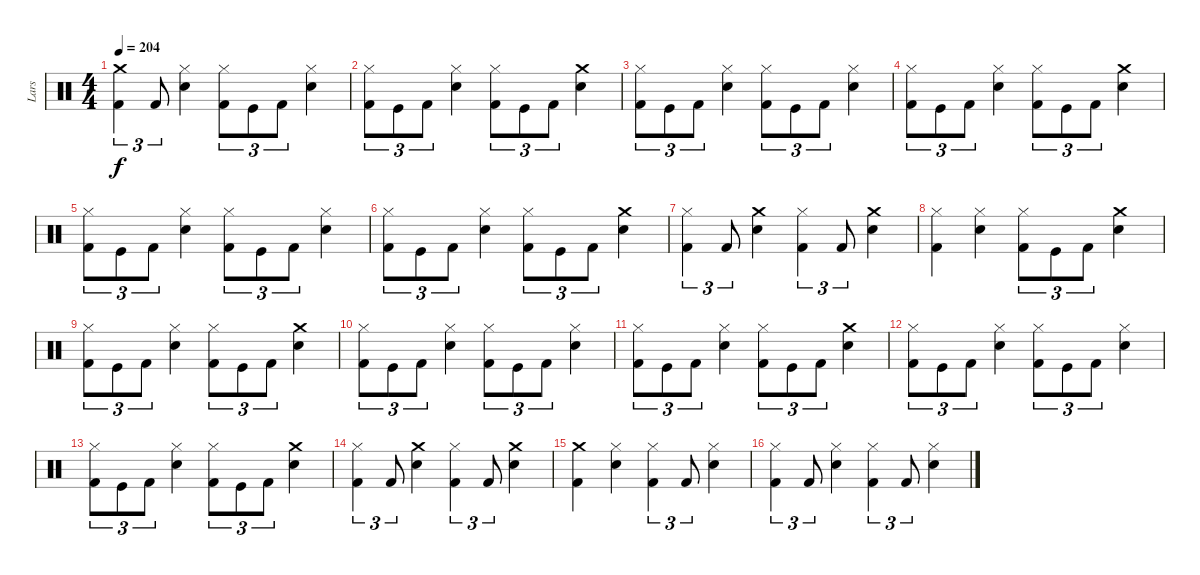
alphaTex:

\track ("Lars" "Lars") {instrument percussion}
\staff {score}
\articulation defaults
\ts (4 4)
\tempo 204
\clef neutral
\ks c
("Crash medium (hit)" "Kick (hit) 2").4{tu (3 2) dy f} "Kick (hit) 2".8{tu (3 2)} ("Snare (hit) 2" "Hi-Hat (closed)").4 ("Hi-Hat (closed)" "Kick (hit) 2").8{tu (3 2)} "Kick (hit)".8{tu (3 2)} "Kick (hit) 2".8{tu (3 2)} ("Hi-Hat (closed)" "Snare (hit) 2").4 |
("Hi-Hat (closed)" "Kick (hit) 2").8{tu (3 2)} "Kick (hit)".8{tu (3 2)} "Kick (hit) 2".8{tu (3 2)} ("Snare (hit) 2" "Hi-Hat (closed)").4 ("Hi-Hat (closed)" "Kick (hit) 2").8{tu (3 2)} "Kick (hit)".8{tu (3 2)} "Kick (hit) 2".8{tu (3 2)} ("Crash medium (hit)" "Snare (hit) 2").4 |
("Hi-Hat (closed)" "Kick (hit) 2").8{tu (3 2)} "Kick (hit)".8{tu (3 2)} "Kick (hit) 2".8{tu (3 2)} ("Snare (hit) 2" "Hi-Hat (closed)").4 ("Hi-Hat (closed)" "Kick (hit) 2").8{tu (3 2)} "Kick (hit)".8{tu (3 2)} "Kick (hit) 2".8{tu (3 2)} ("Hi-Hat (closed)" "Snare (hit) 2").4 |
("Hi-Hat (closed)" "Kick (hit) 2").8{tu (3 2)} "Kick (hit)".8{tu (3 2)} "Kick (hit) 2".8{tu (3 2)} ("Snare (hit) 2" "Hi-Hat (closed)").4 ("Hi-Hat (closed)" "Kick (hit) 2").8{tu (3 2)} "Kick (hit)".8{tu (3 2)} "Kick (hit) 2".8{tu (3 2)} ("Crash medium (hit)" "Snare (hit) 2").4 |
("Hi-Hat (closed)" "Kick (hit) 2").8{tu (3 2)} "Kick (hit)".8{tu (3 2)} "Kick (hit) 2".8{tu (3 2)} ("Snare (hit) 2" "Hi-Hat (closed)").4 ("Hi-Hat (closed)" "Kick (hit) 2").8{tu (3 2)} "Kick (hit)".8{tu (3 2)} "Kick (hit) 2".8{tu (3 2)} ("Hi-Hat (closed)" "Snare (hit) 2").4 |
("Hi-Hat (closed)" "Kick (hit) 2").8{tu (3 2)} "Kick (hit)".8{tu (3 2)} "Kick (hit) 2".8{tu (3 2)} ("Snare (hit) 2" "Hi-Hat (closed)").4 ("Hi-Hat (closed)" "Kick (hit) 2").8{tu (3 2)} "Kick (hit)".8{tu (3 2)} "Kick (hit) 2".8{tu (3 2)} ("Crash medium (hit)" "Snare (hit) 2").4 |
("Kick (hit) 2" "Hi-Hat (closed)").4{tu (3 2)} "Kick (hit) 2".8{tu (3 2)} ("Crash medium (hit)" "Snare (hit) 2").4 ("Kick (hit) 2" "Hi-Hat (closed)").4{tu (3 2)} "Kick (hit) 2".8{tu (3 2)} ("Crash medium (hit)" "Snare (hit) 2").4 |
("Hi-Hat (closed)" "Kick (hit) 2").4 ("Snare (hit) 2" "Hi-Hat (closed)").4 ("Hi-Hat (closed)" "Kick (hit) 2").8{tu (3 2)} "Kick (hit)".8{tu (3 2)} "Kick (hit) 2".8{tu (3 2)} ("Crash medium (hit)" "Snare (hit) 2").4 |
("Hi-Hat (closed)" "Kick (hit) 2").8{tu (3 2)} "Kick (hit)".8{tu (3 2)} "Kick (hit) 2".8{tu (3 2)} ("Snare (hit) 2" "Hi-Hat (closed)").4 ("Hi-Hat (closed)" "Kick (hit) 2").8{tu (3 2)} "Kick (hit)".8{tu (3 2)} "Kick (hit) 2".8{tu (3 2)} ("Crash medium (hit)" "Snare (hit) 2").4 |
("Hi-Hat (closed)" "Kick (hit) 2").8{tu (3 2)} "Kick (hit)".8{tu (3 2)} "Kick (hit) 2".8{tu (3 2)} ("Snare (hit) 2" "Hi-Hat (closed)").4 ("Hi-Hat (closed)" "Kick (hit) 2").8{tu (3 2)} "Kick (hit)".8{tu (3 2)} "Kick (hit) 2".8{tu (3 2)} ("Hi-Hat (closed)" "Snare (hit) 2").4 |
("Hi-Hat (closed)" "Kick (hit) 2").8{tu (3 2)} "Kick (hit)".8{tu (3 2)} "Kick (hit) 2".8{tu (3 2)} ("Snare (hit) 2" "Hi-Hat (closed)").4 ("Hi-Hat (closed)" "Kick (hit) 2").8{tu (3 2)} "Kick (hit)".8{tu (3 2)} "Kick (hit) 2".8{tu (3 2)} ("Crash medium (hit)" "Snare (hit) 2").4 |
("Hi-Hat (closed)" "Kick (hit) 2").8{tu (3 2)} "Kick (hit)".8{tu (3 2)} "Kick (hit) 2".8{tu (3 2)} ("Snare (hit) 2" "Hi-Hat (closed)").4 ("Hi-Hat (closed)" "Kick (hit) 2").8{tu (3 2)} "Kick (hit)".8{tu (3 2)} "Kick (hit) 2".8{tu (3 2)} ("Hi-Hat (closed)" "Snare (hit) 2").4 |
("Hi-Hat (closed)" "Kick (hit) 2").8{tu (3 2)} "Kick (hit)".8{tu (3 2)} "Kick (hit) 2".8{tu (3 2)} ("Snare (hit) 2" "Hi-Hat (closed)").4 ("Hi-Hat (closed)" "Kick (hit) 2").8{tu (3 2)} "Kick (hit)".8{tu (3 2)} "Kick (hit) 2".8{tu (3 2)} ("Crash medium (hit)" "Snare (hit) 2").4 |
("Hi-Hat (closed)" "Kick (hit) 2").4{tu (3 2)} "Kick (hit) 2".8{tu (3 2)} ("Crash medium (hit)" "Snare (hit) 2").4 ("Hi-Hat (closed)" "Kick (hit) 2").4{tu (3 2)} "Kick (hit) 2".8{tu (3 2)} ("Crash medium (hit)" "Snare (hit) 2").4 |
("Kick (hit) 2" "Crash medium (hit)").4 ("Hi-Hat (closed)" "Snare (hit) 2").4 ("Hi-Hat (closed)" "Kick (hit) 2").4{tu (3 2)} "Kick (hit) 2".8{tu (3 2)} ("Snare (hit) 2" "Hi-Hat (closed)").4 |
("Kick (hit) 2" "Hi-Hat (closed)").4{tu (3 2)} "Kick (hit) 2".8{tu (3 2)} ("Snare (hit) 2" "Hi-Hat (closed)").4 ("Kick (hit) 2" "Hi-Hat (closed)").4{tu (3 2)} "Kick (hit) 2".8{tu (3 2)} ("Snare (hit) 2" "Hi-Hat (closed)").4
